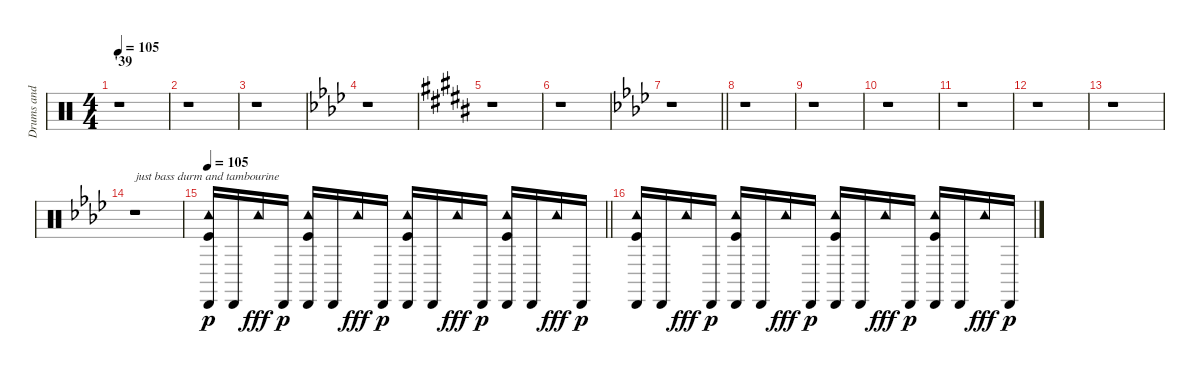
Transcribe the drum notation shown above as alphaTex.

\track ("Drums and percussion" "Drums and ") {instrument percussion}
\staff {score}
\articulation defaults
\ts (4 4)
\section ("" "'39")
\tempo 105
\clef neutral
\ks c
r.1{dy f} |
r.1 |
r.1 |
\ks ab
r.1 |
\ks b
r.1 |
r.1 |
\barLineRight lightlight
\ks ab
r.1 |
r.1 |
r.1 |
r.1 |
r.1 |
r.1 |
r.1 |
r.1{txt "just bass durm and tambourine"} |
\tempo 105
\barLineRight lightlight
("Cabasa (hit)" "Tambourine (hit)" "Kick (hit)").16{dy p} "Cabasa (hit)".16 "Tambourine (hit)".16{dy fff} "Cabasa (hit)".16{dy p} ("Cabasa (hit)" "Tambourine (hit)" "Kick (hit)").16 "Cabasa (hit)".16 "Tambourine (hit)".16{dy fff} "Cabasa (hit)".16{dy p} ("Cabasa (hit)" "Tambourine (hit)" "Kick (hit)").16 "Cabasa (hit)".16 "Tambourine (hit)".16{dy fff} "Cabasa (hit)".16{dy p} ("Cabasa (hit)" "Tambourine (hit)" "Kick (hit)").16 "Cabasa (hit)".16 "Tambourine (hit)".16{dy fff} "Cabasa (hit)".16{dy p} |
("Cabasa (hit)" "Tambourine (hit)" "Kick (hit)").16 "Cabasa (hit)".16 "Tambourine (hit)".16{dy fff} "Cabasa (hit)".16{dy p} ("Cabasa (hit)" "Tambourine (hit)" "Kick (hit)").16 "Cabasa (hit)".16 "Tambourine (hit)".16{dy fff} "Cabasa (hit)".16{dy p} ("Cabasa (hit)" "Tambourine (hit)" "Kick (hit)").16 "Cabasa (hit)".16 "Tambourine (hit)".16{dy fff} "Cabasa (hit)".16{dy p} ("Cabasa (hit)" "Tambourine (hit)" "Kick (hit)").16 "Cabasa (hit)".16 "Tambourine (hit)".16{dy fff} "Cabasa (hit)".16{dy p}
